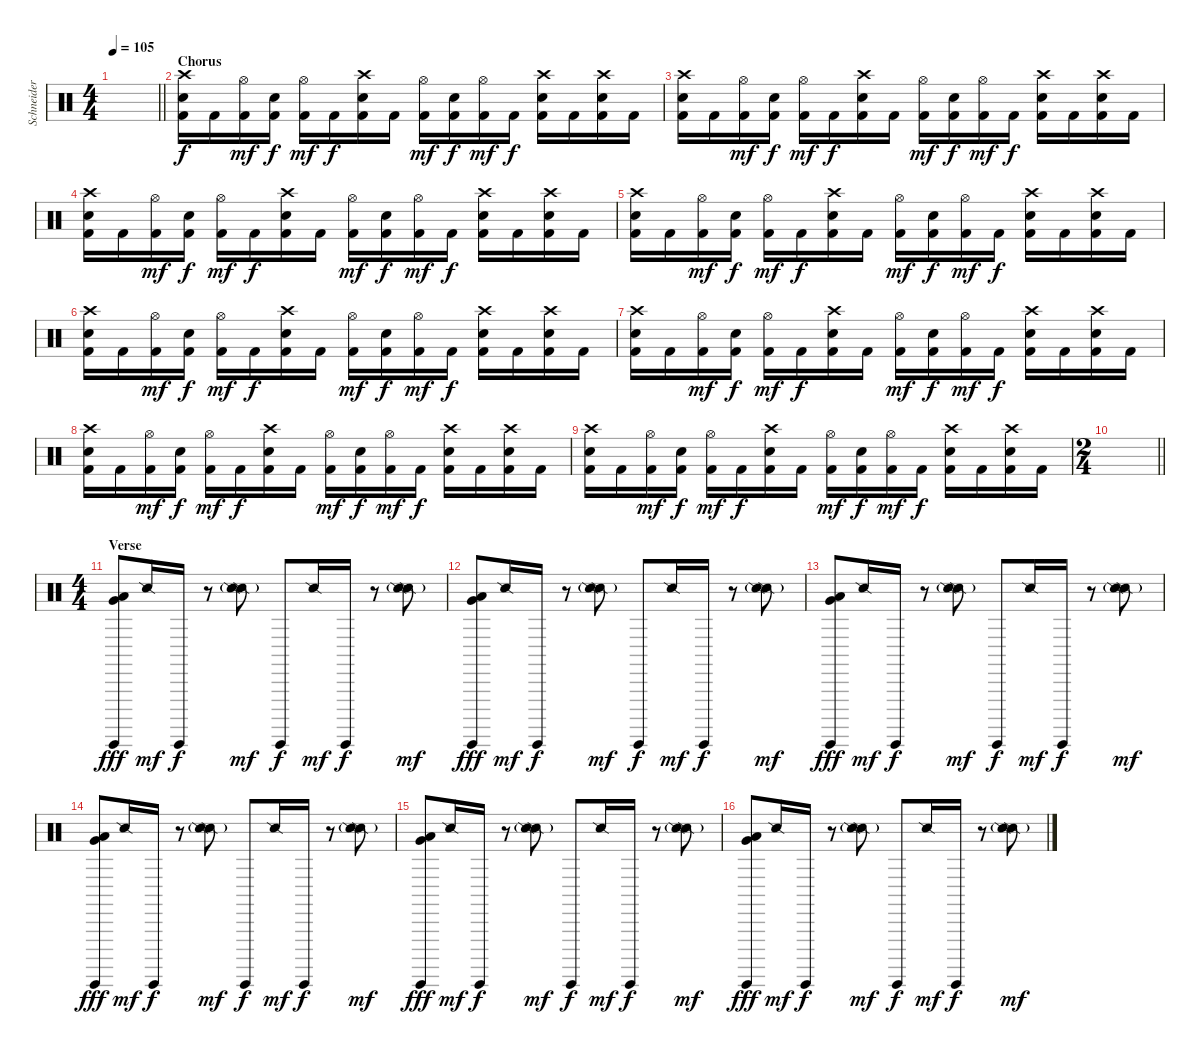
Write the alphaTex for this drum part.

\track ("Schneider" "Schneider") {instrument percussion}
\staff {score}
\articulation defaults
\ts (4 4)
\tempo 105
\clef neutral
\barLineRight lightlight
\ks c
|
\section ("" "Chorus")
("Crash high (hit)" "Kick (hit) 2" "Electric Snare (hit)").16 "Kick (hit) 2".16 ("Hi-Hat (open)" "Kick (hit) 2").16{dy mf} ("Kick (hit) 2" "Electric Snare (hit)").16{dy f} ("Hi-Hat (open)" "Kick (hit) 2").16{dy mf} "Kick (hit) 2".16{dy f} ("Crash high (hit)" "Kick (hit) 2" "Electric Snare (hit)").16 "Kick (hit) 2".16 ("Hi-Hat (open)" "Kick (hit) 2").16{dy mf} ("Kick (hit) 2" "Electric Snare (hit)").16{dy f} ("Hi-Hat (open)" "Kick (hit) 2").16{dy mf} "Kick (hit) 2".16{dy f} ("Crash high (hit)" "Kick (hit) 2" "Electric Snare (hit)").16 "Kick (hit) 2".16 ("Crash high (hit)" "Kick (hit) 2" "Electric Snare (hit)").16 "Kick (hit) 2".16 |
("Crash high (hit)" "Kick (hit) 2" "Electric Snare (hit)").16 "Kick (hit) 2".16 ("Hi-Hat (open)" "Kick (hit) 2").16{dy mf} ("Kick (hit) 2" "Electric Snare (hit)").16{dy f} ("Hi-Hat (open)" "Kick (hit) 2").16{dy mf} "Kick (hit) 2".16{dy f} ("Crash high (hit)" "Kick (hit) 2" "Electric Snare (hit)").16 "Kick (hit) 2".16 ("Hi-Hat (open)" "Kick (hit) 2").16{dy mf} ("Kick (hit) 2" "Electric Snare (hit)").16{dy f} ("Hi-Hat (open)" "Kick (hit) 2").16{dy mf} "Kick (hit) 2".16{dy f} ("Crash high (hit)" "Kick (hit) 2" "Electric Snare (hit)").16 "Kick (hit) 2".16 ("Crash high (hit)" "Kick (hit) 2" "Electric Snare (hit)").16 "Kick (hit) 2".16 |
("Crash high (hit)" "Kick (hit) 2" "Electric Snare (hit)").16 "Kick (hit) 2".16 ("Hi-Hat (open)" "Kick (hit) 2").16{dy mf} ("Kick (hit) 2" "Electric Snare (hit)").16{dy f} ("Hi-Hat (open)" "Kick (hit) 2").16{dy mf} "Kick (hit) 2".16{dy f} ("Crash high (hit)" "Kick (hit) 2" "Electric Snare (hit)").16 "Kick (hit) 2".16 ("Hi-Hat (open)" "Kick (hit) 2").16{dy mf} ("Kick (hit) 2" "Electric Snare (hit)").16{dy f} ("Hi-Hat (open)" "Kick (hit) 2").16{dy mf} "Kick (hit) 2".16{dy f} ("Crash high (hit)" "Kick (hit) 2" "Electric Snare (hit)").16 "Kick (hit) 2".16 ("Crash high (hit)" "Kick (hit) 2" "Electric Snare (hit)").16 "Kick (hit) 2".16 |
("Crash high (hit)" "Kick (hit) 2" "Electric Snare (hit)").16 "Kick (hit) 2".16 ("Hi-Hat (open)" "Kick (hit) 2").16{dy mf} ("Kick (hit) 2" "Electric Snare (hit)").16{dy f} ("Hi-Hat (open)" "Kick (hit) 2").16{dy mf} "Kick (hit) 2".16{dy f} ("Crash high (hit)" "Kick (hit) 2" "Electric Snare (hit)").16 "Kick (hit) 2".16 ("Hi-Hat (open)" "Kick (hit) 2").16{dy mf} ("Kick (hit) 2" "Electric Snare (hit)").16{dy f} ("Hi-Hat (open)" "Kick (hit) 2").16{dy mf} "Kick (hit) 2".16{dy f} ("Crash high (hit)" "Kick (hit) 2" "Electric Snare (hit)").16 "Kick (hit) 2".16 ("Crash high (hit)" "Kick (hit) 2" "Electric Snare (hit)").16 "Kick (hit) 2".16 |
("Crash high (hit)" "Kick (hit) 2" "Electric Snare (hit)").16 "Kick (hit) 2".16 ("Hi-Hat (open)" "Kick (hit) 2").16{dy mf} ("Kick (hit) 2" "Electric Snare (hit)").16{dy f} ("Hi-Hat (open)" "Kick (hit) 2").16{dy mf} "Kick (hit) 2".16{dy f} ("Crash high (hit)" "Kick (hit) 2" "Electric Snare (hit)").16 "Kick (hit) 2".16 ("Hi-Hat (open)" "Kick (hit) 2").16{dy mf} ("Kick (hit) 2" "Electric Snare (hit)").16{dy f} ("Hi-Hat (open)" "Kick (hit) 2").16{dy mf} "Kick (hit) 2".16{dy f} ("Crash high (hit)" "Kick (hit) 2" "Electric Snare (hit)").16 "Kick (hit) 2".16 ("Crash high (hit)" "Kick (hit) 2" "Electric Snare (hit)").16 "Kick (hit) 2".16 |
("Crash high (hit)" "Kick (hit) 2" "Electric Snare (hit)").16 "Kick (hit) 2".16 ("Hi-Hat (open)" "Kick (hit) 2").16{dy mf} ("Kick (hit) 2" "Electric Snare (hit)").16{dy f} ("Hi-Hat (open)" "Kick (hit) 2").16{dy mf} "Kick (hit) 2".16{dy f} ("Crash high (hit)" "Kick (hit) 2" "Electric Snare (hit)").16 "Kick (hit) 2".16 ("Hi-Hat (open)" "Kick (hit) 2").16{dy mf} ("Kick (hit) 2" "Electric Snare (hit)").16{dy f} ("Hi-Hat (open)" "Kick (hit) 2").16{dy mf} "Kick (hit) 2".16{dy f} ("Crash high (hit)" "Kick (hit) 2" "Electric Snare (hit)").16 "Kick (hit) 2".16 ("Crash high (hit)" "Kick (hit) 2" "Electric Snare (hit)").16 "Kick (hit) 2".16 |
("Crash high (hit)" "Kick (hit) 2" "Electric Snare (hit)").16 "Kick (hit) 2".16 ("Hi-Hat (open)" "Kick (hit) 2").16{dy mf} ("Kick (hit) 2" "Electric Snare (hit)").16{dy f} ("Hi-Hat (open)" "Kick (hit) 2").16{dy mf} "Kick (hit) 2".16{dy f} ("Crash high (hit)" "Kick (hit) 2" "Electric Snare (hit)").16 "Kick (hit) 2".16 ("Hi-Hat (open)" "Kick (hit) 2").16{dy mf} ("Kick (hit) 2" "Electric Snare (hit)").16{dy f} ("Hi-Hat (open)" "Kick (hit) 2").16{dy mf} "Kick (hit) 2".16{dy f} ("Crash high (hit)" "Kick (hit) 2" "Electric Snare (hit)").16 "Kick (hit) 2".16 ("Crash high (hit)" "Kick (hit) 2" "Electric Snare (hit)").16 "Kick (hit) 2".16 |
("Crash high (hit)" "Kick (hit) 2" "Electric Snare (hit)").16 "Kick (hit) 2".16 ("Hi-Hat (open)" "Kick (hit) 2").16{dy mf} ("Kick (hit) 2" "Electric Snare (hit)").16{dy f} ("Hi-Hat (open)" "Kick (hit) 2").16{dy mf} "Kick (hit) 2".16{dy f} ("Crash high (hit)" "Kick (hit) 2" "Electric Snare (hit)").16 "Kick (hit) 2".16 ("Hi-Hat (open)" "Kick (hit) 2").16{dy mf} ("Kick (hit) 2" "Electric Snare (hit)").16{dy f} ("Hi-Hat (open)" "Kick (hit) 2").16{dy mf} "Kick (hit) 2".16{dy f} ("Crash high (hit)" "Kick (hit) 2" "Electric Snare (hit)").16 "Kick (hit) 2".16 ("Crash high (hit)" "Kick (hit) 2" "Electric Snare (hit)").16 "Kick (hit) 2".16 |
\ts (2 4)
\barLineRight lightlight
|
\ts (4 4)
\section ("" "Verse")
("Guiro (hit)" "Very Low Tom (hit)" "Low Tom (hit)").8{dy fff} "Snare (side stick) 2".16{dy mf} "Guiro (hit)".16{dy f} r.8 ("Snare (side stick) 2"{g} "Snare (side stick) 2").8{dy mf} "Guiro (hit)".8{dy f} "Snare (side stick) 2".16{dy mf} "Guiro (hit)".16{dy f} r.8 ("Snare (side stick) 2"{g} "Snare (side stick) 2").8{dy mf} |
("Guiro (hit)" "Very Low Tom (hit)" "Low Tom (hit)").8{dy fff} "Snare (side stick) 2".16{dy mf} "Guiro (hit)".16{dy f} r.8 ("Snare (side stick) 2"{g} "Snare (side stick) 2").8{dy mf} "Guiro (hit)".8{dy f} "Snare (side stick) 2".16{dy mf} "Guiro (hit)".16{dy f} r.8 ("Snare (side stick) 2"{g} "Snare (side stick) 2").8{dy mf} |
("Guiro (hit)" "Very Low Tom (hit)" "Low Tom (hit)").8{dy fff} "Snare (side stick) 2".16{dy mf} "Guiro (hit)".16{dy f} r.8 ("Snare (side stick) 2"{g} "Snare (side stick) 2").8{dy mf} "Guiro (hit)".8{dy f} "Snare (side stick) 2".16{dy mf} "Guiro (hit)".16{dy f} r.8 ("Snare (side stick) 2"{g} "Snare (side stick) 2").8{dy mf} |
("Guiro (hit)" "Very Low Tom (hit)" "Low Tom (hit)").8{dy fff} "Snare (side stick) 2".16{dy mf} "Guiro (hit)".16{dy f} r.8 ("Snare (side stick) 2"{g} "Snare (side stick) 2").8{dy mf} "Guiro (hit)".8{dy f} "Snare (side stick) 2".16{dy mf} "Guiro (hit)".16{dy f} r.8 ("Snare (side stick) 2"{g} "Snare (side stick) 2").8{dy mf} |
("Guiro (hit)" "Very Low Tom (hit)" "Low Tom (hit)").8{dy fff} "Snare (side stick) 2".16{dy mf} "Guiro (hit)".16{dy f} r.8 ("Snare (side stick) 2"{g} "Snare (side stick) 2").8{dy mf} "Guiro (hit)".8{dy f} "Snare (side stick) 2".16{dy mf} "Guiro (hit)".16{dy f} r.8 ("Snare (side stick) 2"{g} "Snare (side stick) 2").8{dy mf} |
("Guiro (hit)" "Very Low Tom (hit)" "Low Tom (hit)").8{dy fff} "Snare (side stick) 2".16{dy mf} "Guiro (hit)".16{dy f} r.8 ("Snare (side stick) 2"{g} "Snare (side stick) 2").8{dy mf} "Guiro (hit)".8{dy f} "Snare (side stick) 2".16{dy mf} "Guiro (hit)".16{dy f} r.8 ("Snare (side stick) 2"{g} "Snare (side stick) 2").8{dy mf}
